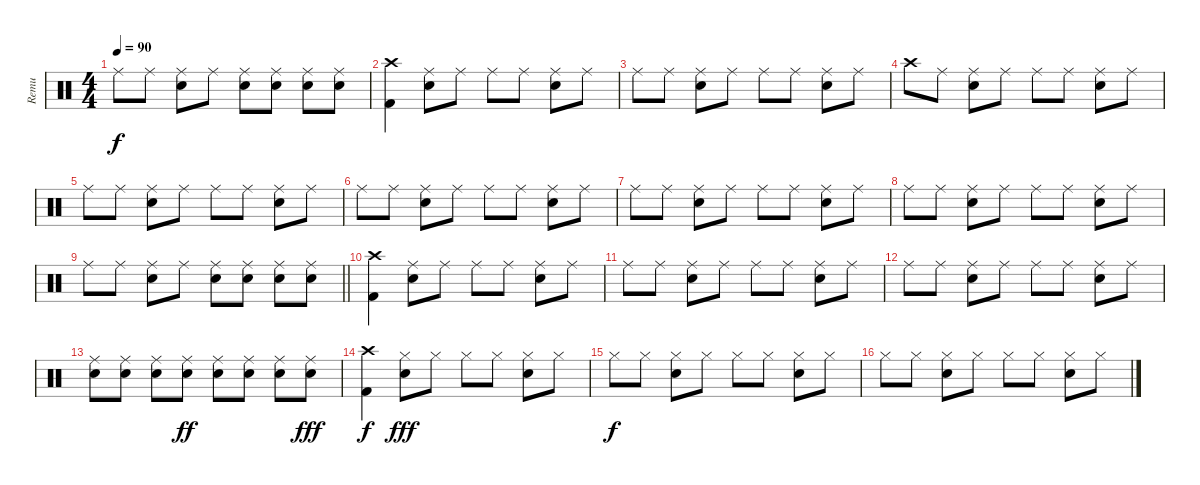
\track ("Remu" "Remu") {instrument percussion}
\staff {score}
\articulation defaults
\ts (4 4)
\tempo 90
\clef neutral
\ks c "Ride (middle)".8{dy f} "Ride (middle)".8
("Ride (middle)" "Snare (hit) 2").8 "Ride (middle)".8 ("Ride (middle)" "Snare (hit) 2").8 ("Ride (middle)" "Snare (hit) 2").8 ("Ride (middle)" "Snare (hit) 2").8 ("Ride (middle)" "Snare (hit) 2").8 |
("Crash high (hit)" "Kick (hit) 2").4 ("Ride (middle)" "Snare (hit) 2").8 "Ride (middle)".8 "Ride (middle)".8 "Ride (middle)".8 ("Ride (middle)" "Snare (hit) 2").8 "Ride (middle)".8 |
"Ride (middle)".8 "Ride (middle)".8 ("Ride (middle)" "Snare (hit) 2").8 "Ride (middle)".8 "Ride (middle)".8 "Ride (middle)".8 ("Ride (middle)" "Snare (hit) 2").8 "Ride (middle)".8 |
"Crash high (hit)".8 "Ride (middle)".8 ("Ride (middle)" "Snare (hit) 2").8 "Ride (middle)".8 "Ride (middle)".8 "Ride (middle)".8 ("Ride (middle)" "Snare (hit) 2").8 "Ride (middle)".8 |
"Ride (middle)".8 "Ride (middle)".8 ("Ride (middle)" "Snare (hit) 2").8 "Ride (middle)".8 "Ride (middle)".8 "Ride (middle)".8 ("Ride (middle)" "Snare (hit) 2").8 "Ride (middle)".8 |
"Ride (middle)".8 "Ride (middle)".8 ("Ride (middle)" "Snare (hit) 2").8 "Ride (middle)".8 "Ride (middle)".8 "Ride (middle)".8 ("Ride (middle)" "Snare (hit) 2").8 "Ride (middle)".8 |
"Ride (middle)".8 "Ride (middle)".8 ("Ride (middle)" "Snare (hit) 2").8 "Ride (middle)".8 "Ride (middle)".8 "Ride (middle)".8 ("Ride (middle)" "Snare (hit) 2").8 "Ride (middle)".8 |
"Ride (middle)".8 "Ride (middle)".8 ("Ride (middle)" "Snare (hit) 2").8 "Ride (middle)".8 "Ride (middle)".8 "Ride (middle)".8 ("Ride (middle)" "Snare (hit) 2").8 "Ride (middle)".8 |
\barLineRight lightlight "Ride (middle)".8 "Ride (middle)".8
("Ride (middle)" "Snare (hit) 2").8 "Ride (middle)".8 ("Ride (middle)" "Snare (hit) 2").8 ("Ride (middle)" "Snare (hit) 2").8 ("Ride (middle)" "Snare (hit) 2").8 ("Ride (middle)" "Snare (hit) 2").8 |
("Crash high (hit)" "Kick (hit) 2").4 ("Ride (middle)" "Snare (hit) 2").8 "Ride (middle)".8 "Ride (middle)".8 "Ride (middle)".8 ("Ride (middle)" "Snare (hit) 2").8 "Ride (middle)".8 |
"Ride (middle)".8 "Ride (middle)".8 ("Ride (middle)" "Snare (hit) 2").8 "Ride (middle)".8 "Ride (middle)".8 "Ride (middle)".8 ("Ride (middle)" "Snare (hit) 2").8 "Ride (middle)".8 |
"Ride (middle)".8 "Ride (middle)".8 ("Ride (middle)" "Snare (hit) 2").8 "Ride (middle)".8 "Ride (middle)".8 "Ride (middle)".8 ("Ride (middle)" "Snare (hit) 2").8 "Ride (middle)".8 |
("Ride (middle)" "Snare (hit) 2").8 ("Ride (middle)" "Snare (hit) 2").8 ("Ride (middle)" "Snare (hit) 2").8 ("Ride (middle)" "Snare (hit) 2").8{dy ff} ("Ride (middle)" "Snare (hit) 2").8 ("Ride (middle)" "Snare (hit) 2").8 ("Ride (middle)" "Snare (hit) 2").8 ("Ride (middle)" "Snare (hit) 2").8{dy fff} |
("Crash high (hit)" "Kick (hit) 2").4{dy f} ("Hi-Hat (closed)" "Snare (hit) 2").8{dy fff} "Hi-Hat (closed)".8 "Hi-Hat (closed)".8 "Hi-Hat (closed)".8 ("Hi-Hat (closed)" "Snare (hit) 2").8 "Hi-Hat (closed)".8 |
"Hi-Hat (closed)".8{dy f} "Hi-Hat (closed)".8 ("Hi-Hat (closed)" "Snare (hit) 2").8 "Hi-Hat (closed)".8 "Hi-Hat (closed)".8 "Hi-Hat (closed)".8 ("Hi-Hat (closed)" "Snare (hit) 2").8 "Hi-Hat (closed)".8 |
"Hi-Hat (closed)".8 "Hi-Hat (closed)".8 ("Hi-Hat (closed)" "Snare (hit) 2").8 "Hi-Hat (closed)".8 "Hi-Hat (closed)".8 "Hi-Hat (closed)".8 ("Hi-Hat (closed)" "Snare (hit) 2").8 "Hi-Hat (closed)".8
